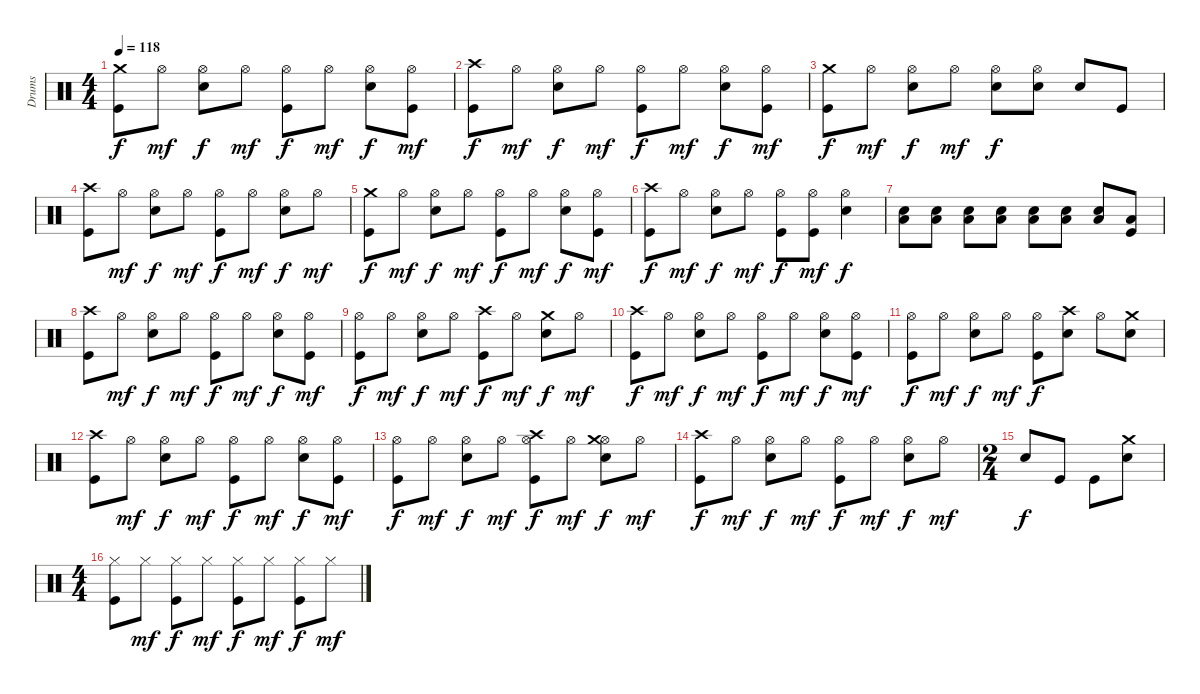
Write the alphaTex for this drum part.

\track ("Drums" "Drums") {instrument percussion}
\staff {score}
\articulation defaults
\ts (4 4)
\tempo 118
\clef neutral
\ks c
("Kick (hit)" "Crash medium (hit)").8{dy f} "Hi-Hat (open)".8{dy mf} ("Hi-Hat (open)" "Snare (hit) 2").8{dy f} "Hi-Hat (open)".8{dy mf} ("Hi-Hat (open)" "Kick (hit)").8{dy f} "Hi-Hat (open)".8{dy mf} ("Hi-Hat (open)" "Snare (hit) 2").8{dy f} ("Hi-Hat (open)" "Kick (hit)").8{dy mf} |
("Kick (hit)" "Crash high (hit)").8{dy f} "Hi-Hat (open)".8{dy mf} ("Hi-Hat (open)" "Snare (hit) 2").8{dy f} "Hi-Hat (open)".8{dy mf} ("Hi-Hat (open)" "Kick (hit)").8{dy f} "Hi-Hat (open)".8{dy mf} ("Hi-Hat (open)" "Snare (hit) 2").8{dy f} ("Hi-Hat (open)" "Kick (hit)").8{dy mf} |
("Kick (hit)" "Crash medium (hit)").8{dy f} "Hi-Hat (open)".8{dy mf} ("Hi-Hat (open)" "Snare (hit) 2").8{dy f} "Hi-Hat (open)".8{dy mf} ("Hi-Hat (open)" "Snare (hit) 2").8{dy f} ("Hi-Hat (open)" "Snare (hit) 2").8 "Snare (hit) 2".8 "Kick (hit)".8 |
("Kick (hit)" "Crash high (hit)").8 "Hi-Hat (open)".8{dy mf} ("Hi-Hat (open)" "Snare (hit) 2").8{dy f} "Hi-Hat (open)".8{dy mf} ("Hi-Hat (open)" "Kick (hit)").8{dy f} "Hi-Hat (open)".8{dy mf} ("Hi-Hat (open)" "Snare (hit) 2").8{dy f} "Hi-Hat (open)".8{dy mf} |
("Kick (hit)" "Crash medium (hit)").8{dy f} "Hi-Hat (open)".8{dy mf} ("Hi-Hat (open)" "Snare (hit) 2").8{dy f} "Hi-Hat (open)".8{dy mf} ("Hi-Hat (open)" "Kick (hit)").8{dy f} "Hi-Hat (open)".8{dy mf} ("Hi-Hat (open)" "Snare (hit) 2").8{dy f} ("Hi-Hat (open)" "Kick (hit)").8{dy mf} |
("Kick (hit)" "Crash high (hit)").8{dy f} "Hi-Hat (open)".8{dy mf} ("Hi-Hat (open)" "Snare (hit) 2").8{dy f} "Hi-Hat (open)".8{dy mf} ("Hi-Hat (open)" "Kick (hit)").8{dy f} ("Hi-Hat (open)" "Kick (hit)").8{dy mf} ("Hi-Hat (open)" "Snare (hit) 2").4{dy f} |
("Snare (hit) 2" "Low Floor Tom (hit)").8 ("Snare (hit) 2" "Low Floor Tom (hit)").8 ("Snare (hit) 2" "Low Floor Tom (hit)").8 ("Snare (hit) 2" "Low Floor Tom (hit)").8 ("Snare (hit) 2" "Low Floor Tom (hit)").8 ("Snare (hit) 2" "Low Floor Tom (hit)").8 ("Snare (hit) 2" "Low Floor Tom (hit)").8 ("Kick (hit)" "Low Floor Tom (hit)").8 |
("Kick (hit)" "Crash high (hit)").8 "Hi-Hat (open)".8{dy mf} ("Hi-Hat (open)" "Snare (hit) 2").8{dy f} "Hi-Hat (open)".8{dy mf} ("Hi-Hat (open)" "Kick (hit)").8{dy f} "Hi-Hat (open)".8{dy mf} ("Hi-Hat (open)" "Snare (hit) 2").8{dy f} ("Hi-Hat (open)" "Kick (hit)").8{dy mf} |
("Hi-Hat (open)" "Kick (hit)").8{dy f} "Hi-Hat (open)".8{dy mf} ("Hi-Hat (open)" "Snare (hit) 2").8{dy f} "Hi-Hat (open)".8{dy mf} ("Kick (hit)" "Crash high (hit)").8{dy f} "Hi-Hat (open)".8{dy mf} ("Snare (hit) 2" "Crash medium (hit)").8{dy f} "Hi-Hat (open)".8{dy mf} |
("Crash high (hit)" "Kick (hit)").8{dy f} "Hi-Hat (open)".8{dy mf} ("Hi-Hat (open)" "Snare (hit) 2").8{dy f} "Hi-Hat (open)".8{dy mf} ("Hi-Hat (open)" "Kick (hit)").8{dy f} "Hi-Hat (open)".8{dy mf} ("Hi-Hat (open)" "Snare (hit) 2").8{dy f} ("Hi-Hat (open)" "Kick (hit)").8{dy mf} |
("Hi-Hat (open)" "Kick (hit)").8{dy f} "Hi-Hat (open)".8{dy mf} ("Hi-Hat (open)" "Snare (hit) 2").8{dy f} "Hi-Hat (open)".8{dy mf} ("Hi-Hat (open)" "Kick (hit)").8{dy f} ("Snare (hit) 2" "Crash high (hit)").8 "Hi-Hat (open)".8 ("Snare (hit) 2" "Crash medium (hit)").8 |
("Kick (hit)" "Crash high (hit)").8 "Hi-Hat (open)".8{dy mf} ("Hi-Hat (open)" "Snare (hit) 2").8{dy f} "Hi-Hat (open)".8{dy mf} ("Hi-Hat (open)" "Kick (hit)").8{dy f} "Hi-Hat (open)".8{dy mf} ("Hi-Hat (open)" "Snare (hit) 2").8{dy f} ("Hi-Hat (open)" "Kick (hit)").8{dy mf} |
("Hi-Hat (open)" "Kick (hit)").8{dy f} "Hi-Hat (open)".8{dy mf} ("Hi-Hat (open)" "Snare (hit) 2").8{dy f} "Hi-Hat (open)".8{dy mf} ("Hi-Hat (open)" "Kick (hit)" "Crash high (hit)").8{dy f} "Hi-Hat (open)".8{dy mf} ("Hi-Hat (open)" "Snare (hit) 2" "Crash medium (hit)").8{dy f} "Hi-Hat (open)".8{dy mf} |
("Crash high (hit)" "Kick (hit)").8{dy f} "Hi-Hat (open)".8{dy mf} ("Hi-Hat (open)" "Snare (hit) 2").8{dy f} "Hi-Hat (open)".8{dy mf} ("Hi-Hat (open)" "Kick (hit)").8{dy f} "Hi-Hat (open)".8{dy mf} ("Hi-Hat (open)" "Snare (hit) 2").8{dy f} "Hi-Hat (open)".8{dy mf} |
\ts (2 4)
"Snare (hit) 2".8{dy f} "Kick (hit)".8 "Kick (hit)".8 ("Crash medium (hit)" "Snare (hit) 2").8 |
\ts (4 4)
("Hi-Hat (closed)" "Kick (hit)").8 "Hi-Hat (closed)".8{dy mf} ("Hi-Hat (closed)" "Kick (hit)").8{dy f} "Hi-Hat (closed)".8{dy mf} ("Hi-Hat (closed)" "Kick (hit)").8{dy f} "Hi-Hat (closed)".8{dy mf} ("Hi-Hat (closed)" "Kick (hit)").8{dy f} "Hi-Hat (closed)".8{dy mf}
